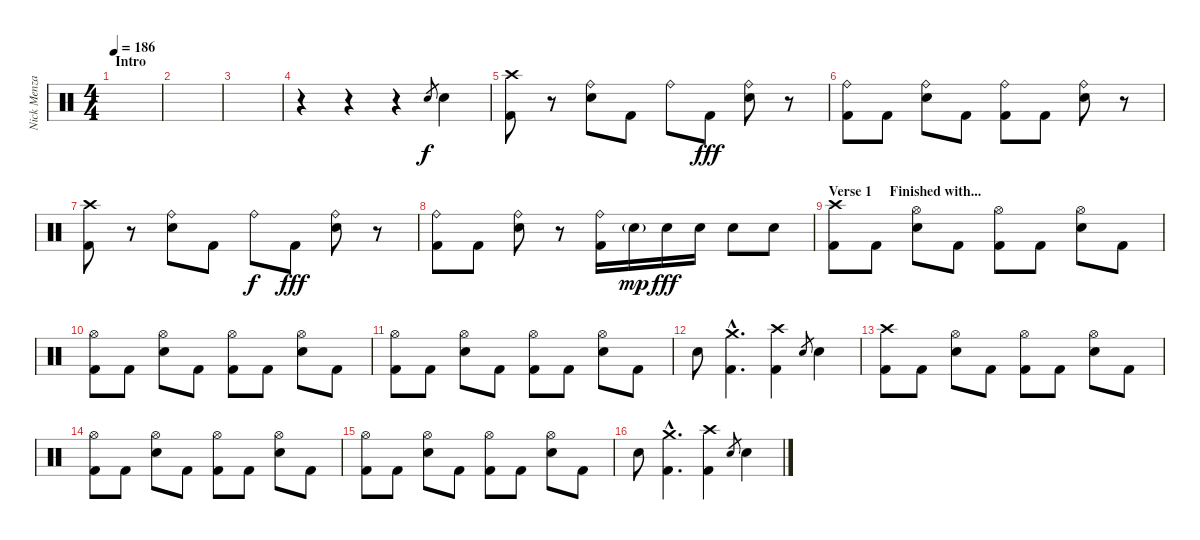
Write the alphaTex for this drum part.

\track ("Nick Menza [Drums]" "Nick Menza") {instrument percussion}
\staff {score}
\articulation defaults
\ts (4 4)
\section ("" "Intro")
\tempo 186
\clef neutral
\ks c
|
|
|
r.4 r.4 r.4 "Snare (hit) 2".8{gr} "Snare (hit) 2".4 |
("Kick (hit) 2" "Crash high (hit)").8 r.8 ("Snare (hit) 2" "Ride (bell)").8 "Kick (hit) 2".8 "Ride (bell)".8{dy f} "Kick (hit) 2".8{dy fff} ("Snare (hit) 2" "Ride (bell)").8 r.8 |
("Kick (hit) 2" "Ride (bell)").8 "Kick (hit) 2".8 ("Snare (hit) 2" "Ride (bell)").8 "Kick (hit) 2".8 ("Kick (hit) 2" "Ride (bell)").8 "Kick (hit) 2".8 ("Snare (hit) 2" "Ride (bell)").8 r.8 |
("Kick (hit) 2" "Crash high (hit)").8 r.8 ("Snare (hit) 2" "Ride (bell)").8 "Kick (hit) 2".8 "Ride (bell)".8{dy f} "Kick (hit) 2".8{dy fff} ("Snare (hit) 2" "Ride (bell)").8 r.8 |
("Kick (hit) 2" "Ride (bell)").8 "Kick (hit) 2".8 ("Snare (hit) 2" "Ride (bell)").8 r.8 ("Kick (hit) 2" "Ride (bell)").16 "Snare (hit) 2"{g}.16{dy mp} "Snare (hit) 2".16{dy fff} "Snare (hit) 2".16 "Snare (hit) 2".8 "Snare (hit) 2".8 |
\section ("" "Verse 1     Finished with...")
("Kick (hit) 2" "Crash high (hit)").8 "Kick (hit) 2".8 ("Snare (hit) 2" "Hi-Hat (open)").8 "Kick (hit) 2".8 ("Kick (hit) 2" "Hi-Hat (open)").8 "Kick (hit) 2".8 ("Snare (hit) 2" "Hi-Hat (open)").8 "Kick (hit) 2".8 |
("Kick (hit) 2" "Hi-Hat (open)").8 "Kick (hit) 2".8 ("Snare (hit) 2" "Hi-Hat (open)").8 "Kick (hit) 2".8 ("Kick (hit) 2" "Hi-Hat (open)").8 "Kick (hit) 2".8 ("Snare (hit) 2" "Hi-Hat (open)").8 "Kick (hit) 2".8 |
("Kick (hit) 2" "Hi-Hat (open)").8 "Kick (hit) 2".8 ("Snare (hit) 2" "Hi-Hat (open)").8 "Kick (hit) 2".8 ("Kick (hit) 2" "Hi-Hat (open)").8 "Kick (hit) 2".8 ("Snare (hit) 2" "Hi-Hat (open)").8 "Kick (hit) 2".8 |
"Snare (hit) 2".8 ("Kick (hit) 2"{hac} "Crash medium (hit)"{hac}).4{d} ("Kick (hit) 2" "Crash high (hit)").4 "Snare (hit) 2".8{gr} "Snare (hit) 2".4 |
("Kick (hit) 2" "Crash high (hit)").8 "Kick (hit) 2".8 ("Snare (hit) 2" "Hi-Hat (open)").8 "Kick (hit) 2".8 ("Kick (hit) 2" "Hi-Hat (open)").8 "Kick (hit) 2".8 ("Snare (hit) 2" "Hi-Hat (open)").8 "Kick (hit) 2".8 |
("Kick (hit) 2" "Hi-Hat (open)").8 "Kick (hit) 2".8 ("Snare (hit) 2" "Hi-Hat (open)").8 "Kick (hit) 2".8 ("Kick (hit) 2" "Hi-Hat (open)").8 "Kick (hit) 2".8 ("Snare (hit) 2" "Hi-Hat (open)").8 "Kick (hit) 2".8 |
("Kick (hit) 2" "Hi-Hat (open)").8 "Kick (hit) 2".8 ("Snare (hit) 2" "Hi-Hat (open)").8 "Kick (hit) 2".8 ("Kick (hit) 2" "Hi-Hat (open)").8 "Kick (hit) 2".8 ("Snare (hit) 2" "Hi-Hat (open)").8 "Kick (hit) 2".8 |
"Snare (hit) 2".8 ("Kick (hit) 2"{hac} "Crash medium (hit)"{hac}).4{d} ("Kick (hit) 2" "Crash high (hit)").4 "Snare (hit) 2".8{gr} "Snare (hit) 2".4
